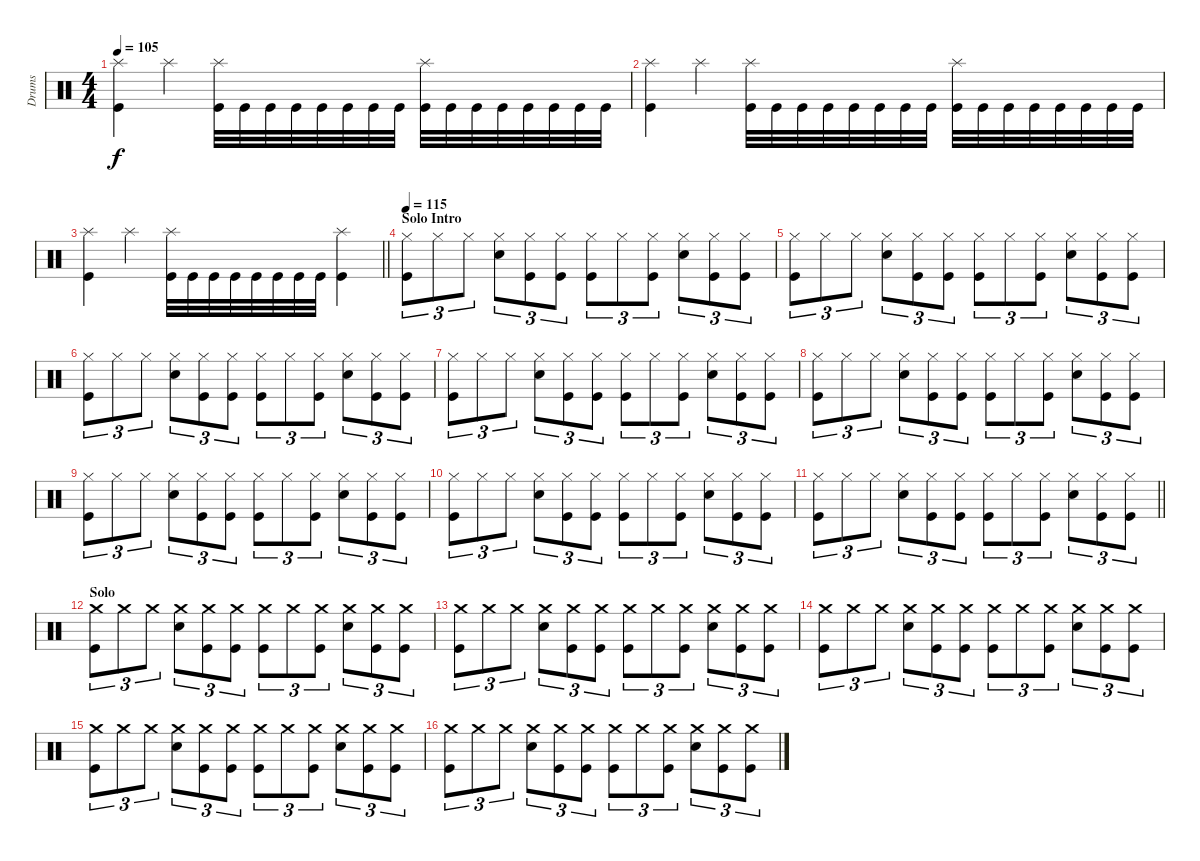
\track ("Drums" "Drums") {instrument percussion}
\staff {score}
\articulation defaults
\ts (4 4)
\tempo 105
\clef neutral
\ks c
("Splash (hit)" "Kick (hit)").4{dy f} "Splash (hit)".4 ("Splash (hit)" "Kick (hit)").32 "Kick (hit)".32 "Kick (hit)".32 "Kick (hit)".32 "Kick (hit)".32 "Kick (hit)".32 "Kick (hit)".32 "Kick (hit)".32 ("Splash (hit)" "Kick (hit)").32 "Kick (hit)".32 "Kick (hit)".32 "Kick (hit)".32 "Kick (hit)".32 "Kick (hit)".32 "Kick (hit)".32 "Kick (hit)".32 |
("Splash (hit)" "Kick (hit)").4 "Splash (hit)".4 ("Splash (hit)" "Kick (hit)").32 "Kick (hit)".32 "Kick (hit)".32 "Kick (hit)".32 "Kick (hit)".32 "Kick (hit)".32 "Kick (hit)".32 "Kick (hit)".32 ("Splash (hit)" "Kick (hit)").32 "Kick (hit)".32 "Kick (hit)".32 "Kick (hit)".32 "Kick (hit)".32 "Kick (hit)".32 "Kick (hit)".32 "Kick (hit)".32 |
\barLineRight lightlight
("Splash (hit)" "Kick (hit)").4 "Splash (hit)".4 ("Splash (hit)" "Kick (hit)").32 "Kick (hit)".32 "Kick (hit)".32 "Kick (hit)".32 "Kick (hit)".32 "Kick (hit)".32 "Kick (hit)".32 "Kick (hit)".32 ("Splash (hit)" "Kick (hit)").4 |
\section ("" "Solo Intro")
\tempo 115
("Hi-Hat (closed)" "Kick (hit)").8{tu (3 2)} "Hi-Hat (closed)".8{tu (3 2)} "Hi-Hat (closed)".8{tu (3 2)} ("Hi-Hat (closed)" "Electric Snare (hit)").8{tu (3 2)} ("Hi-Hat (closed)" "Kick (hit)").8{tu (3 2)} ("Hi-Hat (closed)" "Kick (hit)").8{tu (3 2)} ("Hi-Hat (closed)" "Kick (hit)").8{tu (3 2)} "Hi-Hat (closed)".8{tu (3 2)} ("Hi-Hat (closed)" "Kick (hit)").8{tu (3 2)} ("Hi-Hat (closed)" "Electric Snare (hit)").8{tu (3 2)} ("Hi-Hat (closed)" "Kick (hit)").8{tu (3 2)} ("Hi-Hat (closed)" "Kick (hit)").8{tu (3 2)} |
("Hi-Hat (closed)" "Kick (hit)").8{tu (3 2)} "Hi-Hat (closed)".8{tu (3 2)} "Hi-Hat (closed)".8{tu (3 2)} ("Hi-Hat (closed)" "Electric Snare (hit)").8{tu (3 2)} ("Hi-Hat (closed)" "Kick (hit)").8{tu (3 2)} ("Hi-Hat (closed)" "Kick (hit)").8{tu (3 2)} ("Hi-Hat (closed)" "Kick (hit)").8{tu (3 2)} "Hi-Hat (closed)".8{tu (3 2)} ("Hi-Hat (closed)" "Kick (hit)").8{tu (3 2)} ("Hi-Hat (closed)" "Electric Snare (hit)").8{tu (3 2)} ("Hi-Hat (closed)" "Kick (hit)").8{tu (3 2)} ("Hi-Hat (closed)" "Kick (hit)").8{tu (3 2)} |
("Hi-Hat (closed)" "Kick (hit)").8{tu (3 2)} "Hi-Hat (closed)".8{tu (3 2)} "Hi-Hat (closed)".8{tu (3 2)} ("Hi-Hat (closed)" "Electric Snare (hit)").8{tu (3 2)} ("Hi-Hat (closed)" "Kick (hit)").8{tu (3 2)} ("Hi-Hat (closed)" "Kick (hit)").8{tu (3 2)} ("Hi-Hat (closed)" "Kick (hit)").8{tu (3 2)} "Hi-Hat (closed)".8{tu (3 2)} ("Hi-Hat (closed)" "Kick (hit)").8{tu (3 2)} ("Hi-Hat (closed)" "Electric Snare (hit)").8{tu (3 2)} ("Hi-Hat (closed)" "Kick (hit)").8{tu (3 2)} ("Hi-Hat (closed)" "Kick (hit)").8{tu (3 2)} |
("Hi-Hat (closed)" "Kick (hit)").8{tu (3 2)} "Hi-Hat (closed)".8{tu (3 2)} "Hi-Hat (closed)".8{tu (3 2)} ("Hi-Hat (closed)" "Electric Snare (hit)").8{tu (3 2)} ("Hi-Hat (closed)" "Kick (hit)").8{tu (3 2)} ("Hi-Hat (closed)" "Kick (hit)").8{tu (3 2)} ("Hi-Hat (closed)" "Kick (hit)").8{tu (3 2)} "Hi-Hat (closed)".8{tu (3 2)} ("Hi-Hat (closed)" "Kick (hit)").8{tu (3 2)} ("Hi-Hat (closed)" "Electric Snare (hit)").8{tu (3 2)} ("Hi-Hat (closed)" "Kick (hit)").8{tu (3 2)} ("Hi-Hat (closed)" "Kick (hit)").8{tu (3 2)} |
("Hi-Hat (closed)" "Kick (hit)").8{tu (3 2)} "Hi-Hat (closed)".8{tu (3 2)} "Hi-Hat (closed)".8{tu (3 2)} ("Hi-Hat (closed)" "Electric Snare (hit)").8{tu (3 2)} ("Hi-Hat (closed)" "Kick (hit)").8{tu (3 2)} ("Hi-Hat (closed)" "Kick (hit)").8{tu (3 2)} ("Hi-Hat (closed)" "Kick (hit)").8{tu (3 2)} "Hi-Hat (closed)".8{tu (3 2)} ("Hi-Hat (closed)" "Kick (hit)").8{tu (3 2)} ("Hi-Hat (closed)" "Electric Snare (hit)").8{tu (3 2)} ("Hi-Hat (closed)" "Kick (hit)").8{tu (3 2)} ("Hi-Hat (closed)" "Kick (hit)").8{tu (3 2)} |
("Hi-Hat (closed)" "Kick (hit)").8{tu (3 2)} "Hi-Hat (closed)".8{tu (3 2)} "Hi-Hat (closed)".8{tu (3 2)} ("Hi-Hat (closed)" "Electric Snare (hit)").8{tu (3 2)} ("Hi-Hat (closed)" "Kick (hit)").8{tu (3 2)} ("Hi-Hat (closed)" "Kick (hit)").8{tu (3 2)} ("Hi-Hat (closed)" "Kick (hit)").8{tu (3 2)} "Hi-Hat (closed)".8{tu (3 2)} ("Hi-Hat (closed)" "Kick (hit)").8{tu (3 2)} ("Hi-Hat (closed)" "Electric Snare (hit)").8{tu (3 2)} ("Hi-Hat (closed)" "Kick (hit)").8{tu (3 2)} ("Hi-Hat (closed)" "Kick (hit)").8{tu (3 2)} |
("Hi-Hat (closed)" "Kick (hit)").8{tu (3 2)} "Hi-Hat (closed)".8{tu (3 2)} "Hi-Hat (closed)".8{tu (3 2)} ("Hi-Hat (closed)" "Electric Snare (hit)").8{tu (3 2)} ("Hi-Hat (closed)" "Kick (hit)").8{tu (3 2)} ("Hi-Hat (closed)" "Kick (hit)").8{tu (3 2)} ("Hi-Hat (closed)" "Kick (hit)").8{tu (3 2)} "Hi-Hat (closed)".8{tu (3 2)} ("Hi-Hat (closed)" "Kick (hit)").8{tu (3 2)} ("Hi-Hat (closed)" "Electric Snare (hit)").8{tu (3 2)} ("Hi-Hat (closed)" "Kick (hit)").8{tu (3 2)} ("Hi-Hat (closed)" "Kick (hit)").8{tu (3 2)} |
\barLineRight lightlight
("Hi-Hat (closed)" "Kick (hit)").8{tu (3 2)} "Hi-Hat (closed)".8{tu (3 2)} "Hi-Hat (closed)".8{tu (3 2)} ("Hi-Hat (closed)" "Electric Snare (hit)").8{tu (3 2)} ("Hi-Hat (closed)" "Kick (hit)").8{tu (3 2)} ("Hi-Hat (closed)" "Kick (hit)").8{tu (3 2)} ("Hi-Hat (closed)" "Kick (hit)").8{tu (3 2)} "Hi-Hat (closed)".8{tu (3 2)} ("Hi-Hat (closed)" "Kick (hit)").8{tu (3 2)} ("Hi-Hat (closed)" "Electric Snare (hit)").8{tu (3 2)} ("Hi-Hat (closed)" "Kick (hit)").8{tu (3 2)} ("Hi-Hat (closed)" "Kick (hit)").8{tu (3 2)} |
\section ("" "Solo")
("Crash medium (hit)" "Kick (hit)").8{tu (3 2)} "Crash medium (hit)".8{tu (3 2)} "Crash medium (hit)".8{tu (3 2)} ("Crash medium (hit)" "Electric Snare (hit)").8{tu (3 2)} ("Crash medium (hit)" "Kick (hit)").8{tu (3 2)} ("Crash medium (hit)" "Kick (hit)").8{tu (3 2)} ("Crash medium (hit)" "Kick (hit)").8{tu (3 2)} "Crash medium (hit)".8{tu (3 2)} ("Crash medium (hit)" "Kick (hit)").8{tu (3 2)} ("Crash medium (hit)" "Electric Snare (hit)").8{tu (3 2)} ("Crash medium (hit)" "Kick (hit)").8{tu (3 2)} ("Crash medium (hit)" "Kick (hit)").8{tu (3 2)} |
("Crash medium (hit)" "Kick (hit)").8{tu (3 2)} "Crash medium (hit)".8{tu (3 2)} "Crash medium (hit)".8{tu (3 2)} ("Crash medium (hit)" "Electric Snare (hit)").8{tu (3 2)} ("Crash medium (hit)" "Kick (hit)").8{tu (3 2)} ("Crash medium (hit)" "Kick (hit)").8{tu (3 2)} ("Crash medium (hit)" "Kick (hit)").8{tu (3 2)} "Crash medium (hit)".8{tu (3 2)} ("Crash medium (hit)" "Kick (hit)").8{tu (3 2)} ("Crash medium (hit)" "Electric Snare (hit)").8{tu (3 2)} ("Crash medium (hit)" "Kick (hit)").8{tu (3 2)} ("Crash medium (hit)" "Kick (hit)").8{tu (3 2)} |
("Crash medium (hit)" "Kick (hit)").8{tu (3 2)} "Crash medium (hit)".8{tu (3 2)} "Crash medium (hit)".8{tu (3 2)} ("Crash medium (hit)" "Electric Snare (hit)").8{tu (3 2)} ("Crash medium (hit)" "Kick (hit)").8{tu (3 2)} ("Crash medium (hit)" "Kick (hit)").8{tu (3 2)} ("Crash medium (hit)" "Kick (hit)").8{tu (3 2)} "Crash medium (hit)".8{tu (3 2)} ("Crash medium (hit)" "Kick (hit)").8{tu (3 2)} ("Crash medium (hit)" "Electric Snare (hit)").8{tu (3 2)} ("Crash medium (hit)" "Kick (hit)").8{tu (3 2)} ("Crash medium (hit)" "Kick (hit)").8{tu (3 2)} |
("Crash medium (hit)" "Kick (hit)").8{tu (3 2)} "Crash medium (hit)".8{tu (3 2)} "Crash medium (hit)".8{tu (3 2)} ("Crash medium (hit)" "Electric Snare (hit)").8{tu (3 2)} ("Crash medium (hit)" "Kick (hit)").8{tu (3 2)} ("Crash medium (hit)" "Kick (hit)").8{tu (3 2)} ("Crash medium (hit)" "Kick (hit)").8{tu (3 2)} "Crash medium (hit)".8{tu (3 2)} ("Crash medium (hit)" "Kick (hit)").8{tu (3 2)} ("Crash medium (hit)" "Electric Snare (hit)").8{tu (3 2)} ("Crash medium (hit)" "Kick (hit)").8{tu (3 2)} ("Crash medium (hit)" "Kick (hit)").8{tu (3 2)} |
("Crash medium (hit)" "Kick (hit)").8{tu (3 2)} "Crash medium (hit)".8{tu (3 2)} "Crash medium (hit)".8{tu (3 2)} ("Crash medium (hit)" "Electric Snare (hit)").8{tu (3 2)} ("Crash medium (hit)" "Kick (hit)").8{tu (3 2)} ("Crash medium (hit)" "Kick (hit)").8{tu (3 2)} ("Crash medium (hit)" "Kick (hit)").8{tu (3 2)} "Crash medium (hit)".8{tu (3 2)} ("Crash medium (hit)" "Kick (hit)").8{tu (3 2)} ("Crash medium (hit)" "Electric Snare (hit)").8{tu (3 2)} ("Crash medium (hit)" "Kick (hit)").8{tu (3 2)} ("Crash medium (hit)" "Kick (hit)").8{tu (3 2)}
